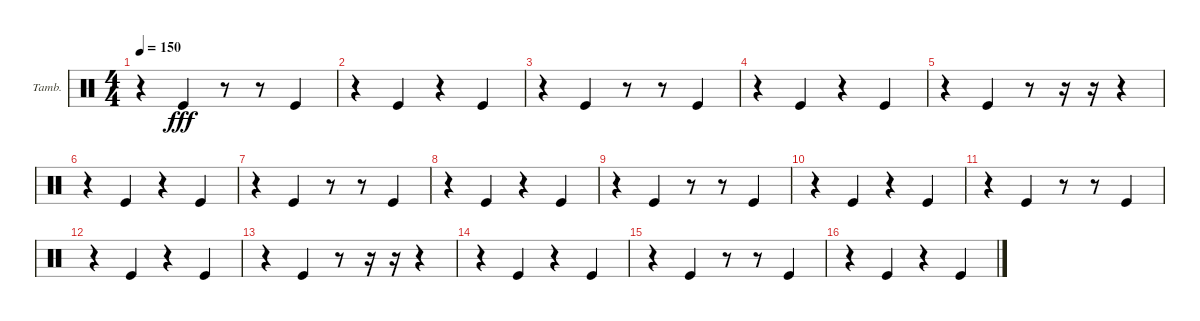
\bracketExtendMode groupsimilarinstruments
\firstSystemTrackNameOrientation horizontal
\otherSystemsTrackNameOrientation horizontal
\track ("Tambourine" "Tamb.") {instrument percussion}
\staff {score}
\articulation defaults
\ts (4 4)
\tempo 150
\clef neutral
\ks c
r.4{dy fff} "Kick (hit)".4 r.8 r.8 "Kick (hit)".4 |
r.4 "Kick (hit)".4 r.4 "Kick (hit)".4 |
r.4 "Kick (hit)".4 r.8 r.8 "Kick (hit)".4 |
r.4 "Kick (hit)".4 r.4 "Kick (hit)".4 |
r.4 "Kick (hit)".4 r.8 r.16 r.16 r.4 |
r.4 "Kick (hit)".4 r.4 "Kick (hit)".4 |
r.4 "Kick (hit)".4 r.8 r.8 "Kick (hit)".4 |
r.4 "Kick (hit)".4 r.4 "Kick (hit)".4 |
r.4 "Kick (hit)".4 r.8 r.8 "Kick (hit)".4 |
r.4 "Kick (hit)".4 r.4 "Kick (hit)".4 |
r.4 "Kick (hit)".4 r.8 r.8 "Kick (hit)".4 |
r.4 "Kick (hit)".4 r.4 "Kick (hit)".4 |
r.4 "Kick (hit)".4 r.8 r.16 r.16 r.4 |
r.4 "Kick (hit)".4 r.4 "Kick (hit)".4 |
r.4 "Kick (hit)".4 r.8 r.8 "Kick (hit)".4 |
r.4 "Kick (hit)".4 r.4 "Kick (hit)".4
